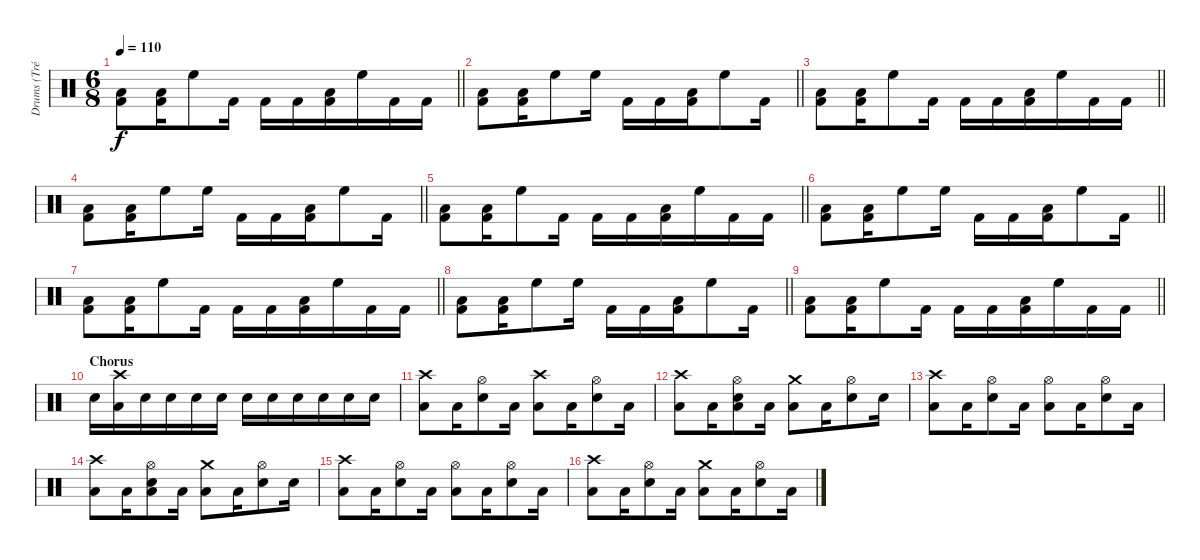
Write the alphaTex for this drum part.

\track ("Drums (Tré Cool)" "Drums (Tré") {instrument percussion}
\staff {score}
\articulation defaults
\ts (6 8)
\tempo 110
\clef neutral
\barLineRight lightlight
\ks c
("Kick (hit) 2" "Low Floor Tom (hit)").8{dy f} ("Kick (hit) 2" "Low Floor Tom (hit)").16 "High Floor Tom (hit)".8 "Kick (hit) 2".16 "Kick (hit) 2".16 "Kick (hit) 2".16 ("Kick (hit) 2" "Low Floor Tom (hit)").16 "High Floor Tom (hit)".16 "Kick (hit) 2".16 "Kick (hit) 2".16 |
\barLineRight lightlight
("Kick (hit) 2" "Low Floor Tom (hit)").8 ("Kick (hit) 2" "Low Floor Tom (hit)").16 "High Floor Tom (hit)".8 "High Floor Tom (hit)".16 "Kick (hit) 2".16 "Kick (hit) 2".16 ("Kick (hit) 2" "Low Floor Tom (hit)").16 "High Floor Tom (hit)".8 "Kick (hit) 2".16 |
\barLineRight lightlight
("Kick (hit) 2" "Low Floor Tom (hit)").8 ("Kick (hit) 2" "Low Floor Tom (hit)").16 "High Floor Tom (hit)".8 "Kick (hit) 2".16 "Kick (hit) 2".16 "Kick (hit) 2".16 ("Kick (hit) 2" "Low Floor Tom (hit)").16 "High Floor Tom (hit)".16 "Kick (hit) 2".16 "Kick (hit) 2".16 |
\barLineRight lightlight
("Kick (hit) 2" "Low Floor Tom (hit)").8 ("Kick (hit) 2" "Low Floor Tom (hit)").16 "High Floor Tom (hit)".8 "High Floor Tom (hit)".16 "Kick (hit) 2".16 "Kick (hit) 2".16 ("Kick (hit) 2" "Low Floor Tom (hit)").16 "High Floor Tom (hit)".8 "Kick (hit) 2".16 |
\barLineRight lightlight
("Kick (hit) 2" "Low Floor Tom (hit)").8 ("Kick (hit) 2" "Low Floor Tom (hit)").16 "High Floor Tom (hit)".8 "Kick (hit) 2".16 "Kick (hit) 2".16 "Kick (hit) 2".16 ("Kick (hit) 2" "Low Floor Tom (hit)").16 "High Floor Tom (hit)".16 "Kick (hit) 2".16 "Kick (hit) 2".16 |
\barLineRight lightlight
("Kick (hit) 2" "Low Floor Tom (hit)").8 ("Kick (hit) 2" "Low Floor Tom (hit)").16 "High Floor Tom (hit)".8 "High Floor Tom (hit)".16 "Kick (hit) 2".16 "Kick (hit) 2".16 ("Kick (hit) 2" "Low Floor Tom (hit)").16 "High Floor Tom (hit)".8 "Kick (hit) 2".16 |
\barLineRight lightlight
("Kick (hit) 2" "Low Floor Tom (hit)").8 ("Kick (hit) 2" "Low Floor Tom (hit)").16 "High Floor Tom (hit)".8 "Kick (hit) 2".16 "Kick (hit) 2".16 "Kick (hit) 2".16 ("Kick (hit) 2" "Low Floor Tom (hit)").16 "High Floor Tom (hit)".16 "Kick (hit) 2".16 "Kick (hit) 2".16 |
\barLineRight lightlight
("Kick (hit) 2" "Low Floor Tom (hit)").8 ("Kick (hit) 2" "Low Floor Tom (hit)").16 "High Floor Tom (hit)".8 "High Floor Tom (hit)".16 "Kick (hit) 2".16 "Kick (hit) 2".16 ("Kick (hit) 2" "Low Floor Tom (hit)").16 "High Floor Tom (hit)".8 "Kick (hit) 2".16 |
\barLineRight lightlight
("Kick (hit) 2" "Low Floor Tom (hit)").8 ("Kick (hit) 2" "Low Floor Tom (hit)").16 "High Floor Tom (hit)".8 "Kick (hit) 2".16 "Kick (hit) 2".16 "Kick (hit) 2".16 ("Kick (hit) 2" "Low Floor Tom (hit)").16 "High Floor Tom (hit)".16 "Kick (hit) 2".16 "Kick (hit) 2".16 |
\section ("" "Chorus")
"Electric Snare (hit)".16 ("Crash high (hit)" "Low Floor Tom (hit)").16 "Electric Snare (hit)".16 "Electric Snare (hit)".16 "Electric Snare (hit)".16 "Electric Snare (hit)".16 "Electric Snare (hit)".16 "Electric Snare (hit)".16 "Electric Snare (hit)".16 "Electric Snare (hit)".16 "Electric Snare (hit)".16 "Electric Snare (hit)".16 |
("Crash high (hit)" "Low Floor Tom (hit)").8 "Low Floor Tom (hit)".16 ("Hi-Hat (open)" "Electric Snare (hit)").8 "Low Floor Tom (hit)".16 ("Crash high (hit)" "Low Floor Tom (hit)").8 "Low Floor Tom (hit)".16 ("Hi-Hat (open)" "Electric Snare (hit)").8 "Low Floor Tom (hit)".16 |
("Crash high (hit)" "Low Floor Tom (hit)").8 "Low Floor Tom (hit)".16 ("Hi-Hat (open)" "Electric Snare (hit)" "Low Floor Tom (hit)").8 "Low Floor Tom (hit)".16 ("Crash medium (hit)" "Low Floor Tom (hit)").8 "Low Floor Tom (hit)".16 ("Hi-Hat (open)" "Electric Snare (hit)").8 "Electric Snare (hit)".16 |
("Crash high (hit)" "Low Floor Tom (hit)").8 "Low Floor Tom (hit)".16 ("Hi-Hat (open)" "Electric Snare (hit)").8 "Low Floor Tom (hit)".16 ("Hi-Hat (open)" "Low Floor Tom (hit)").8 "Low Floor Tom (hit)".16 ("Hi-Hat (open)" "Electric Snare (hit)").8 "Low Floor Tom (hit)".16 |
("Crash high (hit)" "Low Floor Tom (hit)").8 "Low Floor Tom (hit)".16 ("Hi-Hat (open)" "Electric Snare (hit)" "Low Floor Tom (hit)").8 "Low Floor Tom (hit)".16 ("Crash medium (hit)" "Low Floor Tom (hit)").8 "Low Floor Tom (hit)".16 ("Hi-Hat (open)" "Electric Snare (hit)").8 "Electric Snare (hit)".16 |
("Crash high (hit)" "Low Floor Tom (hit)").8 "Low Floor Tom (hit)".16 ("Hi-Hat (open)" "Electric Snare (hit)").8 "Low Floor Tom (hit)".16 ("Hi-Hat (open)" "Low Floor Tom (hit)").8 "Low Floor Tom (hit)".16 ("Hi-Hat (open)" "Electric Snare (hit)").8 "Low Floor Tom (hit)".16 |
("Crash high (hit)" "Low Floor Tom (hit)").8 "Low Floor Tom (hit)".16 ("Hi-Hat (open)" "Electric Snare (hit)").8 "Low Floor Tom (hit)".16 ("Crash medium (hit)" "Low Floor Tom (hit)").8 "Low Floor Tom (hit)".16 ("Hi-Hat (open)" "Electric Snare (hit)").8 "Low Floor Tom (hit)".16
